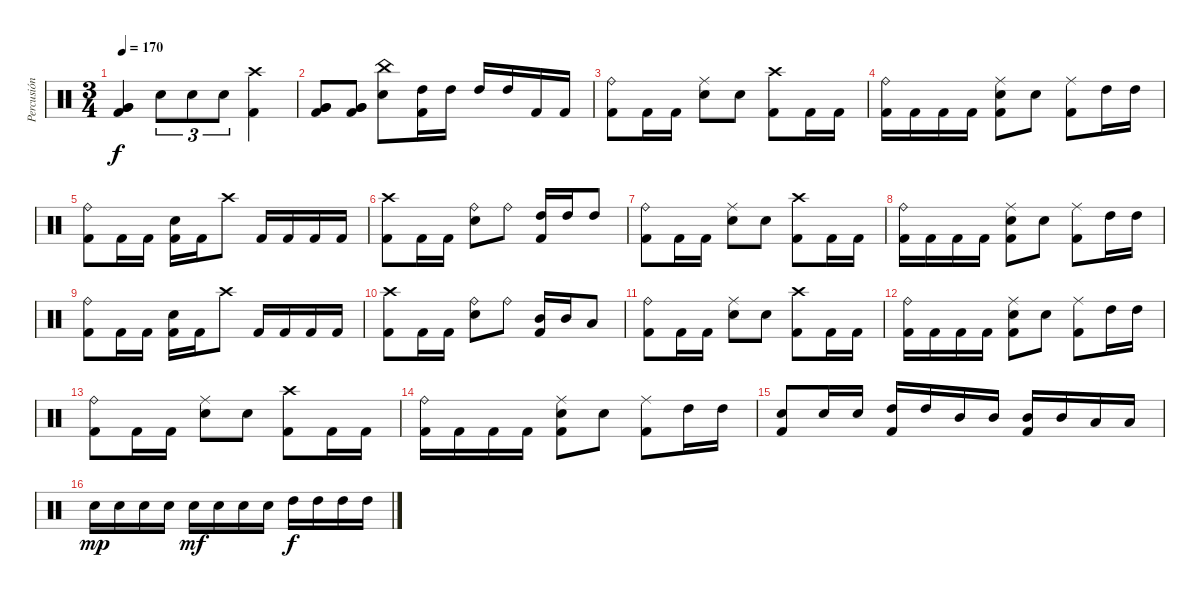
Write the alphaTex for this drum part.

\track ("Percusión" "Percusión") {instrument percussion}
\staff {score}
\articulation defaults
\ts (3 4)
\tempo 170
\clef neutral
\ks c
("Very Low Tom (hit)" "Very Low Tom (hit)" "Kick (hit) 2").4{dy f} "Snare (hit) 2".8{tu (3 2)} "Snare (hit) 2".8{tu (3 2)} "Snare (hit) 2".8{tu (3 2)} ("Crash high (hit)" "Kick (hit) 2").4 |
("Very Low Tom (hit)" "Very Low Tom (hit)" "Kick (hit) 2").8 ("Very Low Tom (hit)" "Very Low Tom (hit)" "Kick (hit) 2").8 ("China (hit)" "Snare (hit) 2").8 ("High Tom (hit)" "Kick (hit) 2").16 "High Tom (hit)".16 "High Tom (hit)".16 "High Tom (hit)".16 "Kick (hit) 2".16 "Kick (hit) 2".16 |
("Ride (bell)" "Kick (hit) 2").8 "Kick (hit) 2".16 "Kick (hit) 2".16 ("Ride (middle)" "Snare (hit) 2").8 "Snare (hit) 2".8 ("Crash high (hit)" "Kick (hit) 2").8 "Kick (hit) 2".16 "Kick (hit) 2".16 |
("Ride (bell)" "Kick (hit) 2").16 "Kick (hit) 2".16 "Kick (hit) 2".16 "Kick (hit) 2".16 ("Ride (middle)" "Snare (hit) 2" "Kick (hit) 2").8 "Snare (hit) 2".8 ("Ride (middle)" "Kick (hit) 2").8 "High Tom (hit)".16 "High Tom (hit)".16 |
("Ride (bell)" "Kick (hit) 2").8 "Kick (hit) 2".16 "Kick (hit) 2".16 ("Snare (hit) 2" "Kick (hit) 2").16 "Kick (hit) 2".16 "Crash high (hit)".8 "Kick (hit) 2".16 "Kick (hit) 2".16 "Kick (hit) 2".16 "Kick (hit) 2".16 |
("Crash high (hit)" "Kick (hit) 2").8 "Kick (hit) 2".16 "Kick (hit) 2".16 ("Ride (bell)" "Snare (hit) 2").8 "Ride (bell)".8 ("High Tom (hit)" "Kick (hit) 2").16 "High Tom (hit)".16 "High Tom (hit)".8 |
("Ride (bell)" "Kick (hit) 2").8 "Kick (hit) 2".16 "Kick (hit) 2".16 ("Ride (middle)" "Snare (hit) 2").8 "Snare (hit) 2".8 ("Crash high (hit)" "Kick (hit) 2").8 "Kick (hit) 2".16 "Kick (hit) 2".16 |
("Ride (bell)" "Kick (hit) 2").16 "Kick (hit) 2".16 "Kick (hit) 2".16 "Kick (hit) 2".16 ("Ride (middle)" "Snare (hit) 2" "Kick (hit) 2").8 "Snare (hit) 2".8 ("Ride (middle)" "Kick (hit) 2").8 "High Tom (hit)".16 "High Tom (hit)".16 |
("Ride (bell)" "Kick (hit) 2").8 "Kick (hit) 2".16 "Kick (hit) 2".16 ("Snare (hit) 2" "Kick (hit) 2").16 "Kick (hit) 2".16 "Crash high (hit)".8 "Kick (hit) 2".16 "Kick (hit) 2".16 "Kick (hit) 2".16 "Kick (hit) 2".16 |
("Crash high (hit)" "Kick (hit) 2").8 "Kick (hit) 2".16 "Kick (hit) 2".16 ("Ride (bell)" "Snare (hit) 2").8 "Ride (bell)".8 ("Mid Tom (hit)" "Kick (hit) 2").16 "Mid Tom (hit)".16 "Low Tom (hit)".8 |
("Ride (bell)" "Kick (hit) 2").8 "Kick (hit) 2".16 "Kick (hit) 2".16 ("Ride (middle)" "Snare (hit) 2").8 "Snare (hit) 2".8 ("Crash high (hit)" "Kick (hit) 2").8 "Kick (hit) 2".16 "Kick (hit) 2".16 |
("Ride (bell)" "Kick (hit) 2").16 "Kick (hit) 2".16 "Kick (hit) 2".16 "Kick (hit) 2".16 ("Ride (middle)" "Snare (hit) 2" "Kick (hit) 2").8 "Snare (hit) 2".8 ("Ride (middle)" "Kick (hit) 2").8 "High Tom (hit)".16 "High Tom (hit)".16 |
("Ride (bell)" "Kick (hit) 2").8 "Kick (hit) 2".16 "Kick (hit) 2".16 ("Ride (middle)" "Snare (hit) 2").8 "Snare (hit) 2".8 ("Crash high (hit)" "Kick (hit) 2").8 "Kick (hit) 2".16 "Kick (hit) 2".16 |
("Ride (bell)" "Kick (hit) 2").16 "Kick (hit) 2".16 "Kick (hit) 2".16 "Kick (hit) 2".16 ("Ride (middle)" "Snare (hit) 2" "Kick (hit) 2").8 "Snare (hit) 2".8 ("Ride (middle)" "Kick (hit) 2").8 "High Tom (hit)".16 "High Tom (hit)".16 |
("Snare (hit) 2" "Kick (hit) 2").8 "Snare (hit) 2".16 "Snare (hit) 2".16 ("High Tom (hit)" "Kick (hit) 2").16 "High Tom (hit)".16 "Mid Tom (hit)".16 "Mid Tom (hit)".16 ("Mid Tom (hit)" "Kick (hit) 2").16 "Mid Tom (hit)".16 "Low Tom (hit)".16 "Low Tom (hit)".16 |
"Snare (hit) 2".16{dy mp} "Snare (hit) 2".16 "Snare (hit) 2".16 "Snare (hit) 2".16 "Snare (hit) 2".16{dy mf} "Snare (hit) 2".16 "Snare (hit) 2".16 "Snare (hit) 2".16 "High Tom (hit)".16{dy f} "High Tom (hit)".16 "High Tom (hit)".16 "High Tom (hit)".16
